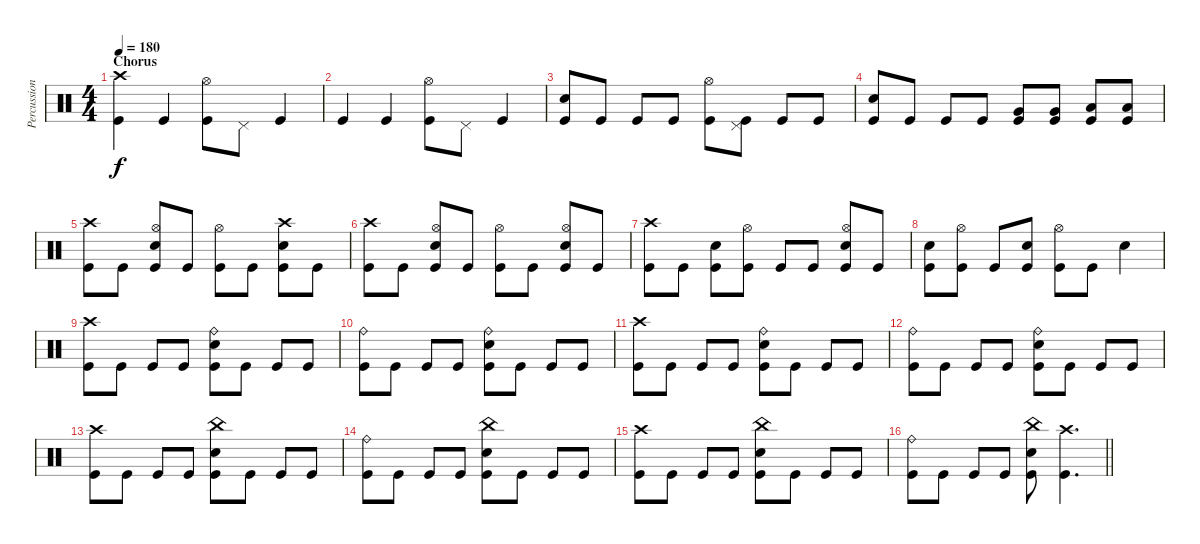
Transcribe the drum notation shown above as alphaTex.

\track ("Percussion" "Percussion") {instrument percussion}
\staff {score}
\articulation defaults
\ts (4 4)
\section ("" "Chorus")
\tempo 180
\clef neutral
\ks c
("Crash high (hit)" "Kick (hit)").4{dy f} "Kick (hit)".4 ("Hi-Hat (open)" "Kick (hit)").8 "Pedal Hi-Hat (hit)".8 "Kick (hit)".4 |
"Kick (hit)".4 "Kick (hit)".4 ("Hi-Hat (open)" "Kick (hit)").8 "Pedal Hi-Hat (hit)".8 "Kick (hit)".4 |
("Electric Snare (hit)" "Kick (hit)").8 "Kick (hit)".8 "Kick (hit)".8 "Kick (hit)".8 ("Hi-Hat (open)" "Kick (hit)").8 ("Pedal Hi-Hat (hit)" "Kick (hit)").8 "Kick (hit)".8 "Kick (hit)".8 |
("Electric Snare (hit)" "Kick (hit)").8 "Kick (hit)".8 "Kick (hit)".8 "Kick (hit)".8 ("Very Low Tom (hit)" "Kick (hit)").8 ("Very Low Tom (hit)" "Kick (hit)").8 ("Low Floor Tom (hit)" "Kick (hit)").8 ("Low Floor Tom (hit)" "Kick (hit)").8 |
("Crash high (hit)" "Kick (hit)").8 "Kick (hit)".8 ("Hi-Hat (open)" "Electric Snare (hit)" "Kick (hit)").8 "Kick (hit)".8 ("Hi-Hat (open)" "Kick (hit)").8 "Kick (hit)".8 ("Crash high (hit)" "Electric Snare (hit)" "Kick (hit)").8 "Kick (hit)".8 |
("Crash high (hit)" "Kick (hit)").8 "Kick (hit)".8 ("Hi-Hat (open)" "Electric Snare (hit)" "Kick (hit)").8 "Kick (hit)".8 ("Hi-Hat (open)" "Kick (hit)").8 "Kick (hit)".8 ("Hi-Hat (open)" "Electric Snare (hit)" "Kick (hit)").8 "Kick (hit)".8 |
("Crash high (hit)" "Kick (hit)").8 "Kick (hit)".8 ("Electric Snare (hit)" "Kick (hit)").8 ("Hi-Hat (open)" "Kick (hit)").8 "Kick (hit)".8 "Kick (hit)".8 ("Hi-Hat (open)" "Electric Snare (hit)" "Kick (hit)").8 "Kick (hit)".8 |
("Electric Snare (hit)" "Kick (hit)").8 ("Hi-Hat (open)" "Kick (hit)").8 "Kick (hit)".8 ("Electric Snare (hit)" "Kick (hit)").8 ("Hi-Hat (open)" "Kick (hit)").8 "Kick (hit)".8 "Electric Snare (hit)".4 |
("Crash high (hit)" "Kick (hit)").8 "Kick (hit)".8 "Kick (hit)".8 "Kick (hit)".8 ("Ride (bell)" "Electric Snare (hit)" "Kick (hit)").8 "Kick (hit)".8 "Kick (hit)".8 "Kick (hit)".8 |
("Ride (bell)" "Kick (hit)").8 "Kick (hit)".8 "Kick (hit)".8 "Kick (hit)".8 ("Ride (bell)" "Electric Snare (hit)" "Kick (hit)").8 "Kick (hit)".8 "Kick (hit)".8 "Kick (hit)".8 |
("Crash high (hit)" "Kick (hit)").8 "Kick (hit)".8 "Kick (hit)".8 "Kick (hit)".8 ("Ride (bell)" "Electric Snare (hit)" "Kick (hit)").8 "Kick (hit)".8 "Kick (hit)".8 "Kick (hit)".8 |
("Ride (bell)" "Kick (hit)").8 "Kick (hit)".8 "Kick (hit)".8 "Kick (hit)".8 ("Ride (bell)" "Electric Snare (hit)" "Kick (hit)").8 "Kick (hit)".8 "Kick (hit)".8 "Kick (hit)".8 |
("Crash high (hit)" "Kick (hit)").8 "Kick (hit)".8 "Kick (hit)".8 "Kick (hit)".8 ("China (hit)" "Electric Snare (hit)" "Kick (hit)").8 "Kick (hit)".8 "Kick (hit)".8 "Kick (hit)".8 |
("Ride (bell)" "Kick (hit)").8 "Kick (hit)".8 "Kick (hit)".8 "Kick (hit)".8 ("China (hit)" "Electric Snare (hit)" "Kick (hit)").8 "Kick (hit)".8 "Kick (hit)".8 "Kick (hit)".8 |
("Crash high (hit)" "Kick (hit)").8 "Kick (hit)".8 "Kick (hit)".8 "Kick (hit)".8 ("China (hit)" "Electric Snare (hit)" "Kick (hit)").8 "Kick (hit)".8 "Kick (hit)".8 "Kick (hit)".8 |
\barLineRight lightlight
("Ride (bell)" "Kick (hit)").8 "Kick (hit)".8 "Kick (hit)".8 "Kick (hit)".8 ("China (hit)" "Electric Snare (hit)" "Kick (hit)").8 ("Crash high (hit)" "Kick (hit)").4{d}
